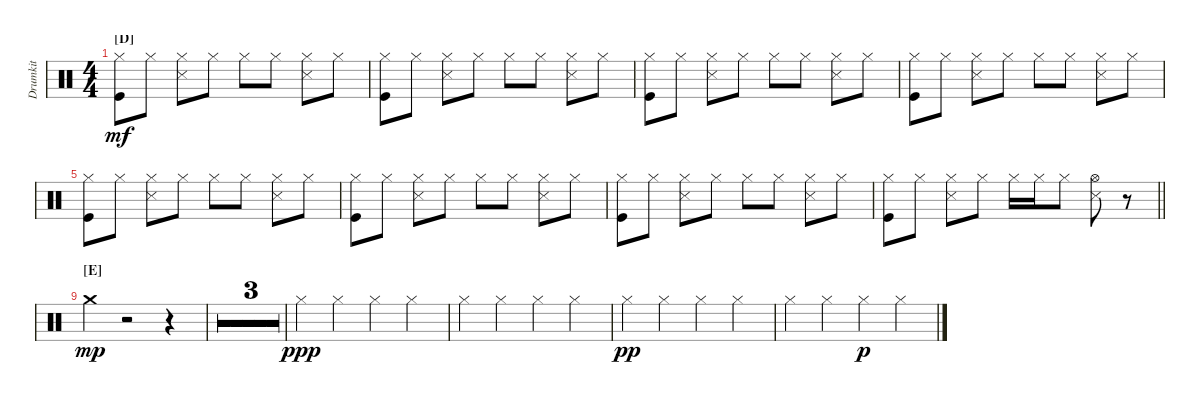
\bracketExtendMode groupsimilarinstruments
\multiTrackTrackNamePolicy hidden
\firstSystemTrackNameMode fullname
\otherSystemsTrackNameMode fullname
\otherSystemsTrackNameOrientation horizontal
\defaultBarNumberDisplay FirstOfSystem
\track ("Drumkit" "Drums") {multiBarRest instrument percussion}
\staff {score}
\articulation defaults
\ts (4 4)
\section ("D" "")
\tempo (150 hide)
\clef neutral
\ks c
("Hi-Hat (closed)" "Kick (hit)").8{dy mf} "Hi-Hat (closed)".8 ("Hi-Hat (closed)" "Snare (side stick) 3").8 "Hi-Hat (closed)".8 "Hi-Hat (closed)".8 "Hi-Hat (closed)".8 ("Hi-Hat (closed)" "Snare (side stick) 3").8 "Hi-Hat (closed)".8 |
("Hi-Hat (closed)" "Kick (hit)").8 "Hi-Hat (closed)".8 ("Hi-Hat (closed)" "Snare (side stick) 3").8 "Hi-Hat (closed)".8 "Hi-Hat (closed)".8 "Hi-Hat (closed)".8 ("Hi-Hat (closed)" "Snare (side stick) 3").8 "Hi-Hat (closed)".8 |
("Hi-Hat (closed)" "Kick (hit)").8 "Hi-Hat (closed)".8 ("Hi-Hat (closed)" "Snare (side stick) 3").8 "Hi-Hat (closed)".8 "Hi-Hat (closed)".8 "Hi-Hat (closed)".8 ("Hi-Hat (closed)" "Snare (side stick) 3").8 "Hi-Hat (closed)".8 |
("Hi-Hat (closed)" "Kick (hit)").8 "Hi-Hat (closed)".8 ("Hi-Hat (closed)" "Snare (side stick) 3").8 "Hi-Hat (closed)".8 "Hi-Hat (closed)".8 "Hi-Hat (closed)".8 ("Hi-Hat (closed)" "Snare (side stick) 3").8 "Hi-Hat (closed)".8 |
("Hi-Hat (closed)" "Kick (hit)").8 "Hi-Hat (closed)".8 ("Hi-Hat (closed)" "Snare (side stick) 3").8 "Hi-Hat (closed)".8 "Hi-Hat (closed)".8 "Hi-Hat (closed)".8 ("Hi-Hat (closed)" "Snare (side stick) 3").8 "Hi-Hat (closed)".8 |
("Hi-Hat (closed)" "Kick (hit)").8 "Hi-Hat (closed)".8 ("Hi-Hat (closed)" "Snare (side stick) 3").8 "Hi-Hat (closed)".8 "Hi-Hat (closed)".8 "Hi-Hat (closed)".8 ("Hi-Hat (closed)" "Snare (side stick) 3").8 "Hi-Hat (closed)".8 |
("Hi-Hat (closed)" "Kick (hit)").8 "Hi-Hat (closed)".8 ("Hi-Hat (closed)" "Snare (side stick) 3").8 "Hi-Hat (closed)".8 "Hi-Hat (closed)".8 "Hi-Hat (closed)".8 ("Hi-Hat (closed)" "Snare (side stick) 3").8 "Hi-Hat (closed)".8 |
\barLineRight lightlight
("Hi-Hat (closed)" "Kick (hit)").8 "Hi-Hat (closed)".8 ("Hi-Hat (closed)" "Snare (side stick) 3").8 "Hi-Hat (closed)".8 "Hi-Hat (closed)".16 "Hi-Hat (closed)".16 "Hi-Hat (closed)".8 ("Hi-Hat (open)" "Snare (side stick) 3").8 r.8 |
\section ("E" "")
"Crash medium (hit)".4{dy mp} r.2 r.4 |
r.1 |
r.1 |
r.1 |
"Hi-Hat (closed)".4{dy ppp} "Hi-Hat (closed)".4 "Hi-Hat (closed)".4 "Hi-Hat (closed)".4 |
"Hi-Hat (closed)".4 "Hi-Hat (closed)".4 "Hi-Hat (closed)".4 "Hi-Hat (closed)".4 |
"Hi-Hat (closed)".4{dy pp} "Hi-Hat (closed)".4 "Hi-Hat (closed)".4 "Hi-Hat (closed)".4 |
"Hi-Hat (closed)".4 "Hi-Hat (closed)".4 "Hi-Hat (closed)".4{dy p} "Hi-Hat (closed)".4
